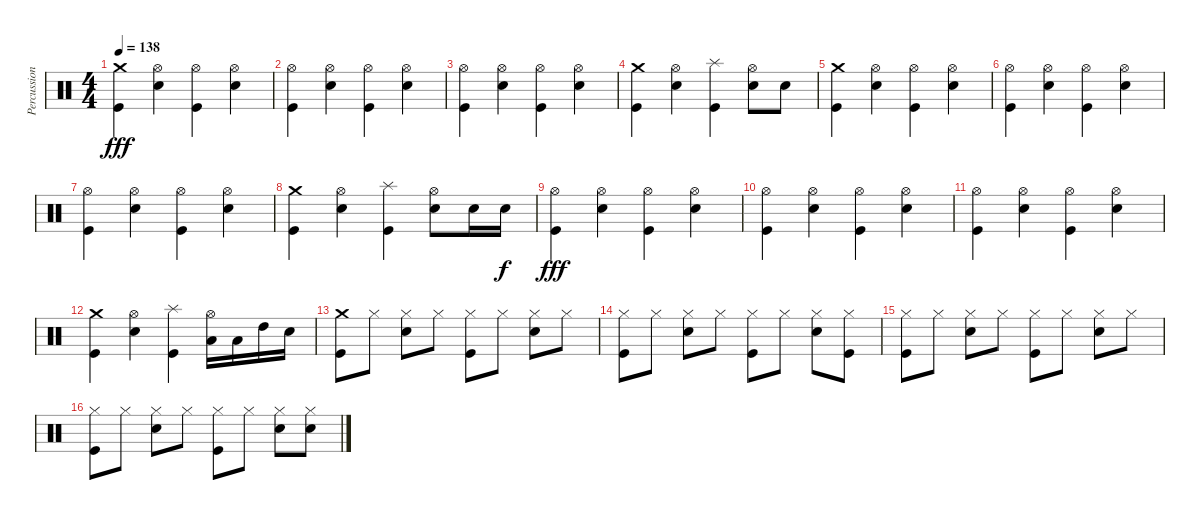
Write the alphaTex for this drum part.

\track ("Percussions" "Percussion") {instrument percussion}
\staff {score}
\articulation defaults
\ts (4 4)
\tempo 138
\clef neutral
\ks c
("Crash medium (hit)" "Kick (hit)").4{dy fff} ("Hi-Hat (open)" "Snare (hit) 2").4 ("Hi-Hat (open)" "Kick (hit)").4 ("Hi-Hat (open)" "Snare (hit) 2").4 |
("Hi-Hat (open)" "Kick (hit)").4 ("Hi-Hat (open)" "Snare (hit) 2").4 ("Hi-Hat (open)" "Kick (hit)").4 ("Hi-Hat (open)" "Snare (hit) 2").4 |
("Hi-Hat (open)" "Kick (hit)").4 ("Hi-Hat (open)" "Snare (hit) 2").4 ("Hi-Hat (open)" "Kick (hit)").4 ("Hi-Hat (open)" "Snare (hit) 2").4 |
("Crash medium (hit)" "Kick (hit)").4 ("Hi-Hat (open)" "Snare (hit) 2").4 ("Splash (hit)" "Kick (hit)").4 ("Hi-Hat (open)" "Snare (hit) 2").8 "Snare (hit) 2".8 |
("Crash medium (hit)" "Kick (hit)").4 ("Hi-Hat (open)" "Snare (hit) 2").4 ("Hi-Hat (open)" "Kick (hit)").4 ("Hi-Hat (open)" "Snare (hit) 2").4 |
("Hi-Hat (open)" "Kick (hit)").4 ("Hi-Hat (open)" "Snare (hit) 2").4 ("Hi-Hat (open)" "Kick (hit)").4 ("Hi-Hat (open)" "Snare (hit) 2").4 |
("Hi-Hat (open)" "Kick (hit)").4 ("Hi-Hat (open)" "Snare (hit) 2").4 ("Hi-Hat (open)" "Kick (hit)").4 ("Hi-Hat (open)" "Snare (hit) 2").4 |
("Crash medium (hit)" "Kick (hit)").4 ("Hi-Hat (open)" "Snare (hit) 2").4 ("Splash (hit)" "Kick (hit)").4 ("Hi-Hat (open)" "Snare (hit) 2").8 "Snare (hit) 2".16 "Snare (hit) 2".16{dy f} |
("Hi-Hat (open)" "Kick (hit)").4{dy fff} ("Hi-Hat (open)" "Snare (hit) 2").4 ("Hi-Hat (open)" "Kick (hit)").4 ("Hi-Hat (open)" "Snare (hit) 2").4 |
("Hi-Hat (open)" "Kick (hit)").4 ("Hi-Hat (open)" "Snare (hit) 2").4 ("Hi-Hat (open)" "Kick (hit)").4 ("Hi-Hat (open)" "Snare (hit) 2").4 |
("Hi-Hat (open)" "Kick (hit)").4 ("Hi-Hat (open)" "Snare (hit) 2").4 ("Hi-Hat (open)" "Kick (hit)").4 ("Hi-Hat (open)" "Snare (hit) 2").4 |
("Crash medium (hit)" "Kick (hit)").4 ("Hi-Hat (open)" "Snare (hit) 2").4 ("Splash (hit)" "Kick (hit)").4 ("Hi-Hat (open)" "Low Tom (hit)").16 "Low Tom (hit)".16 "High Tom (hit)".16 "Snare (hit) 2".16 |
("Crash medium (hit)" "Kick (hit)").8 "Hi-Hat (closed)".8 ("Hi-Hat (closed)" "Snare (hit) 2").8 "Hi-Hat (closed)".8 ("Hi-Hat (closed)" "Kick (hit)").8 "Hi-Hat (closed)".8 ("Hi-Hat (closed)" "Snare (hit) 2").8 "Hi-Hat (closed)".8 |
("Hi-Hat (closed)" "Kick (hit)").8 "Hi-Hat (closed)".8 ("Hi-Hat (closed)" "Snare (hit) 2").8 "Hi-Hat (closed)".8 ("Hi-Hat (closed)" "Kick (hit)").8 "Hi-Hat (closed)".8 ("Hi-Hat (closed)" "Snare (hit) 2").8 ("Hi-Hat (closed)" "Kick (hit)").8 |
("Hi-Hat (closed)" "Kick (hit)").8 "Hi-Hat (closed)".8 ("Hi-Hat (closed)" "Snare (hit) 2").8 "Hi-Hat (closed)".8 ("Hi-Hat (closed)" "Kick (hit)").8 "Hi-Hat (closed)".8 ("Hi-Hat (closed)" "Snare (hit) 2").8 "Hi-Hat (closed)".8 |
("Hi-Hat (closed)" "Kick (hit)").8 "Hi-Hat (closed)".8 ("Hi-Hat (closed)" "Snare (hit) 2").8 "Hi-Hat (closed)".8 ("Hi-Hat (closed)" "Kick (hit)").8 "Hi-Hat (closed)".8 ("Hi-Hat (closed)" "Snare (hit) 2").8 ("Hi-Hat (closed)" "Snare (hit) 2").8
